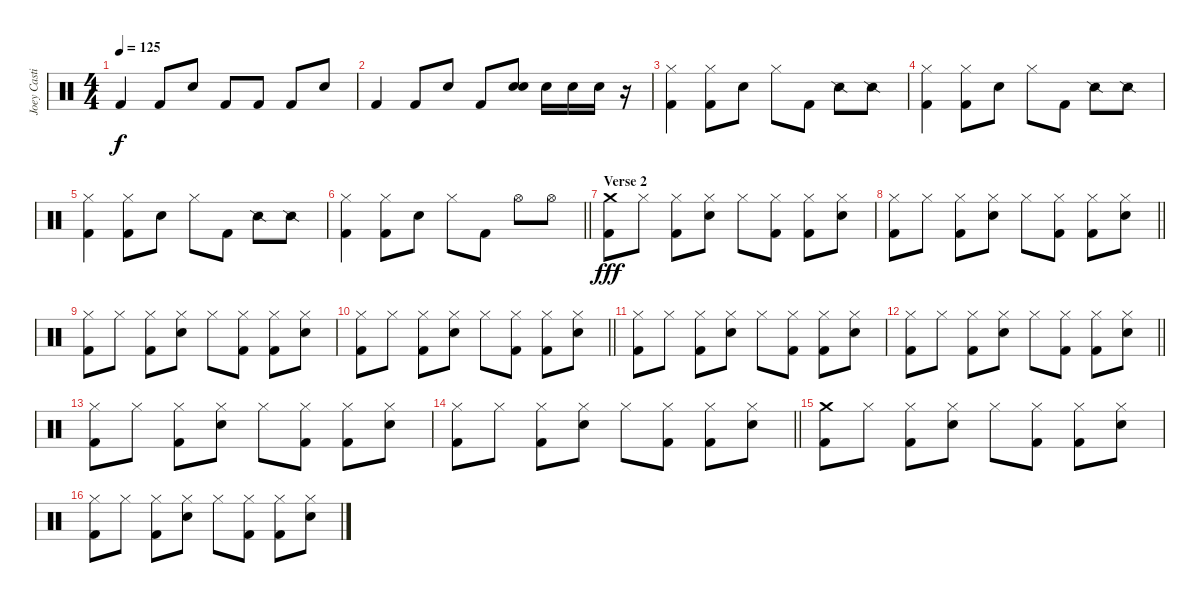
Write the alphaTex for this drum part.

\track ("Joey Castillo" "Joey Casti") {instrument percussion}
\staff {score}
\articulation defaults
\ts (4 4)
\tempo 125
\clef neutral
\ks c "Kick (hit) 2".4{dy f} "Kick (hit) 2".8 "Electric Snare (hit)".8 "Kick (hit) 2".8 "Kick (hit) 2".8 "Kick (hit) 2".8 "Electric Snare (hit)".8
|
"Kick (hit) 2".4 "Kick (hit) 2".8 "Electric Snare (hit)".8 "Kick (hit) 2".8 ("Electric Snare (hit)" "Electric Snare (hit)").8{bu 240} "Electric Snare (hit)".16 "Electric Snare (hit)".16 "Electric Snare (hit)".16 r.16 |
("Hi-Hat (closed)" "Kick (hit) 2").4 ("Hi-Hat (closed)" "Kick (hit) 2").8 "Electric Snare (hit)".8 "Hi-Hat (closed)".8 "Kick (hit) 2".8 "Snare (side stick) 2".8 "Snare (side stick) 2".8 |
("Hi-Hat (closed)" "Kick (hit) 2").4 ("Hi-Hat (closed)" "Kick (hit) 2").8 "Electric Snare (hit)".8 "Hi-Hat (closed)".8 "Kick (hit) 2".8 "Snare (side stick) 2".8 "Snare (side stick) 2".8 |
("Hi-Hat (closed)" "Kick (hit) 2").4 ("Hi-Hat (closed)" "Kick (hit) 2").8 "Electric Snare (hit)".8 "Hi-Hat (closed)".8 "Kick (hit) 2".8 "Snare (side stick) 2".8 "Snare (side stick) 2".8 |
\barLineRight lightlight
("Hi-Hat (closed)" "Kick (hit) 2").4 ("Hi-Hat (closed)" "Kick (hit) 2").8 "Electric Snare (hit)".8 "Hi-Hat (closed)".8 "Kick (hit) 2".8 "Hi-Hat (open)".8 "Hi-Hat (open)".8 |
\section ("" "Verse 2")
("Crash medium (hit)" "Kick (hit) 2").8{dy fff} "Hi-Hat (closed)".8 ("Hi-Hat (closed)" "Kick (hit) 2").8 ("Hi-Hat (closed)" "Electric Snare (hit)").8 "Hi-Hat (closed)".8 ("Hi-Hat (closed)" "Kick (hit) 2").8 ("Hi-Hat (closed)" "Kick (hit) 2").8 ("Hi-Hat (closed)" "Electric Snare (hit)").8 |
\barLineRight lightlight
("Hi-Hat (closed)" "Kick (hit) 2").8 "Hi-Hat (closed)".8 ("Hi-Hat (closed)" "Kick (hit) 2").8 ("Hi-Hat (closed)" "Electric Snare (hit)").8 "Hi-Hat (closed)".8 ("Hi-Hat (closed)" "Kick (hit) 2").8 ("Hi-Hat (closed)" "Kick (hit) 2").8 ("Hi-Hat (closed)" "Electric Snare (hit)").8 |
("Hi-Hat (closed)" "Kick (hit) 2").8 "Hi-Hat (closed)".8 ("Hi-Hat (closed)" "Kick (hit) 2").8 ("Hi-Hat (closed)" "Electric Snare (hit)").8 "Hi-Hat (closed)".8 ("Hi-Hat (closed)" "Kick (hit) 2").8 ("Hi-Hat (closed)" "Kick (hit) 2").8 ("Hi-Hat (closed)" "Electric Snare (hit)").8 |
\barLineRight lightlight
("Hi-Hat (closed)" "Kick (hit) 2").8 "Hi-Hat (closed)".8 ("Hi-Hat (closed)" "Kick (hit) 2").8 ("Hi-Hat (closed)" "Electric Snare (hit)").8 "Hi-Hat (closed)".8 ("Hi-Hat (closed)" "Kick (hit) 2").8 ("Hi-Hat (closed)" "Kick (hit) 2").8 ("Hi-Hat (closed)" "Electric Snare (hit)").8 |
("Hi-Hat (closed)" "Kick (hit) 2").8 "Hi-Hat (closed)".8 ("Hi-Hat (closed)" "Kick (hit) 2").8 ("Hi-Hat (closed)" "Electric Snare (hit)").8 "Hi-Hat (closed)".8 ("Hi-Hat (closed)" "Kick (hit) 2").8 ("Hi-Hat (closed)" "Kick (hit) 2").8 ("Hi-Hat (closed)" "Electric Snare (hit)").8 |
\barLineRight lightlight
("Hi-Hat (closed)" "Kick (hit) 2").8 "Hi-Hat (closed)".8 ("Hi-Hat (closed)" "Kick (hit) 2").8 ("Hi-Hat (closed)" "Electric Snare (hit)").8 "Hi-Hat (closed)".8 ("Hi-Hat (closed)" "Kick (hit) 2").8 ("Hi-Hat (closed)" "Kick (hit) 2").8 ("Hi-Hat (closed)" "Electric Snare (hit)").8 |
("Hi-Hat (closed)" "Kick (hit) 2").8 "Hi-Hat (closed)".8 ("Hi-Hat (closed)" "Kick (hit) 2").8 ("Hi-Hat (closed)" "Electric Snare (hit)").8 "Hi-Hat (closed)".8 ("Hi-Hat (closed)" "Kick (hit) 2").8 ("Hi-Hat (closed)" "Kick (hit) 2").8 ("Hi-Hat (closed)" "Electric Snare (hit)").8 |
\barLineRight lightlight
("Hi-Hat (closed)" "Kick (hit) 2").8 "Hi-Hat (closed)".8 ("Hi-Hat (closed)" "Kick (hit) 2").8 ("Hi-Hat (closed)" "Electric Snare (hit)").8 "Hi-Hat (closed)".8 ("Hi-Hat (closed)" "Kick (hit) 2").8 ("Hi-Hat (closed)" "Kick (hit) 2").8 ("Hi-Hat (closed)" "Electric Snare (hit)").8 |
("Crash medium (hit)" "Kick (hit) 2").8 "Hi-Hat (closed)".8 ("Hi-Hat (closed)" "Kick (hit) 2").8 ("Hi-Hat (closed)" "Electric Snare (hit)").8 "Hi-Hat (closed)".8 ("Hi-Hat (closed)" "Kick (hit) 2").8 ("Hi-Hat (closed)" "Kick (hit) 2").8 ("Hi-Hat (closed)" "Electric Snare (hit)").8 |
("Hi-Hat (closed)" "Kick (hit) 2").8 "Hi-Hat (closed)".8 ("Hi-Hat (closed)" "Kick (hit) 2").8 ("Hi-Hat (closed)" "Electric Snare (hit)").8 "Hi-Hat (closed)".8 ("Hi-Hat (closed)" "Kick (hit) 2").8 ("Hi-Hat (closed)" "Kick (hit) 2").8 ("Hi-Hat (closed)" "Electric Snare (hit)").8
